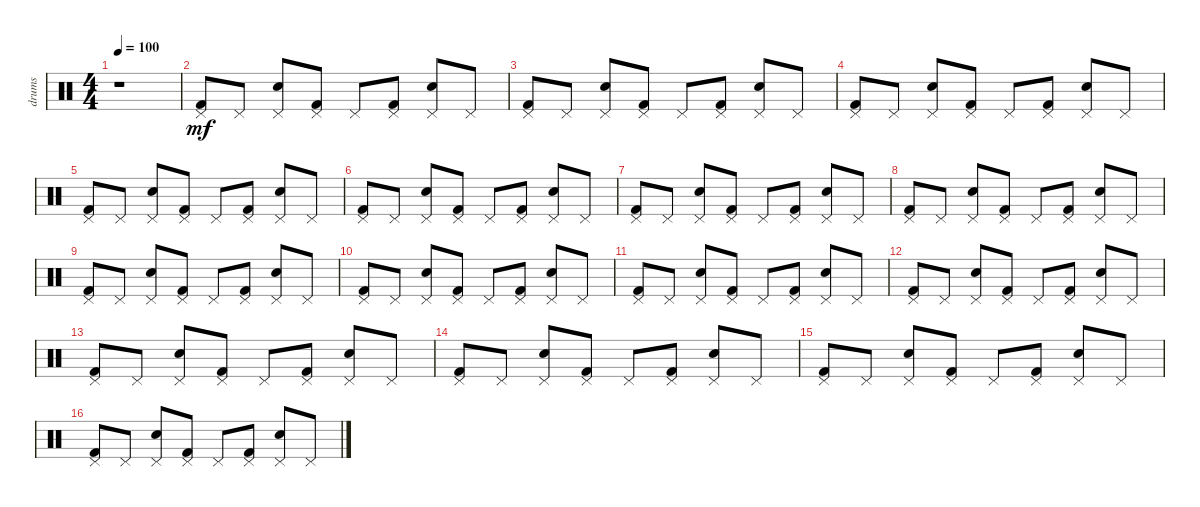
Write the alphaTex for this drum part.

\track ("drums" "drums") {instrument percussion}
\staff {score}
\articulation defaults
\ts (4 4)
\tempo 100
\clef neutral
\ks c
r.1{dy mf} |
("Kick (hit) 2" "Pedal Hi-Hat (hit)").8 "Pedal Hi-Hat (hit)".8 ("Snare (hit) 2" "Pedal Hi-Hat (hit)").8 ("Kick (hit) 2" "Pedal Hi-Hat (hit)").8 "Pedal Hi-Hat (hit)".8 ("Kick (hit) 2" "Pedal Hi-Hat (hit)").8 ("Snare (hit) 2" "Pedal Hi-Hat (hit)").8 "Pedal Hi-Hat (hit)".8 |
("Kick (hit) 2" "Pedal Hi-Hat (hit)").8 "Pedal Hi-Hat (hit)".8 ("Snare (hit) 2" "Pedal Hi-Hat (hit)").8 ("Kick (hit) 2" "Pedal Hi-Hat (hit)").8 "Pedal Hi-Hat (hit)".8 ("Kick (hit) 2" "Pedal Hi-Hat (hit)").8 ("Snare (hit) 2" "Pedal Hi-Hat (hit)").8 "Pedal Hi-Hat (hit)".8 |
("Kick (hit) 2" "Pedal Hi-Hat (hit)").8 "Pedal Hi-Hat (hit)".8 ("Snare (hit) 2" "Pedal Hi-Hat (hit)").8 ("Kick (hit) 2" "Pedal Hi-Hat (hit)").8 "Pedal Hi-Hat (hit)".8 ("Kick (hit) 2" "Pedal Hi-Hat (hit)").8 ("Snare (hit) 2" "Pedal Hi-Hat (hit)").8 "Pedal Hi-Hat (hit)".8 |
("Kick (hit) 2" "Pedal Hi-Hat (hit)").8 "Pedal Hi-Hat (hit)".8 ("Snare (hit) 2" "Pedal Hi-Hat (hit)").8 ("Kick (hit) 2" "Pedal Hi-Hat (hit)").8 "Pedal Hi-Hat (hit)".8 ("Kick (hit) 2" "Pedal Hi-Hat (hit)").8 ("Snare (hit) 2" "Pedal Hi-Hat (hit)").8 "Pedal Hi-Hat (hit)".8 |
("Kick (hit) 2" "Pedal Hi-Hat (hit)").8 "Pedal Hi-Hat (hit)".8 ("Snare (hit) 2" "Pedal Hi-Hat (hit)").8 ("Kick (hit) 2" "Pedal Hi-Hat (hit)").8 "Pedal Hi-Hat (hit)".8 ("Kick (hit) 2" "Pedal Hi-Hat (hit)").8 ("Snare (hit) 2" "Pedal Hi-Hat (hit)").8 "Pedal Hi-Hat (hit)".8 |
("Kick (hit) 2" "Pedal Hi-Hat (hit)").8 "Pedal Hi-Hat (hit)".8 ("Snare (hit) 2" "Pedal Hi-Hat (hit)").8 ("Kick (hit) 2" "Pedal Hi-Hat (hit)").8 "Pedal Hi-Hat (hit)".8 ("Kick (hit) 2" "Pedal Hi-Hat (hit)").8 ("Snare (hit) 2" "Pedal Hi-Hat (hit)").8 "Pedal Hi-Hat (hit)".8 |
("Kick (hit) 2" "Pedal Hi-Hat (hit)").8 "Pedal Hi-Hat (hit)".8 ("Snare (hit) 2" "Pedal Hi-Hat (hit)").8 ("Kick (hit) 2" "Pedal Hi-Hat (hit)").8 "Pedal Hi-Hat (hit)".8 ("Kick (hit) 2" "Pedal Hi-Hat (hit)").8 ("Snare (hit) 2" "Pedal Hi-Hat (hit)").8 "Pedal Hi-Hat (hit)".8 |
("Kick (hit) 2" "Pedal Hi-Hat (hit)").8 "Pedal Hi-Hat (hit)".8 ("Snare (hit) 2" "Pedal Hi-Hat (hit)").8 ("Kick (hit) 2" "Pedal Hi-Hat (hit)").8 "Pedal Hi-Hat (hit)".8 ("Kick (hit) 2" "Pedal Hi-Hat (hit)").8 ("Snare (hit) 2" "Pedal Hi-Hat (hit)").8 "Pedal Hi-Hat (hit)".8 |
("Kick (hit) 2" "Pedal Hi-Hat (hit)").8 "Pedal Hi-Hat (hit)".8 ("Snare (hit) 2" "Pedal Hi-Hat (hit)").8 ("Kick (hit) 2" "Pedal Hi-Hat (hit)").8 "Pedal Hi-Hat (hit)".8 ("Kick (hit) 2" "Pedal Hi-Hat (hit)").8 ("Snare (hit) 2" "Pedal Hi-Hat (hit)").8 "Pedal Hi-Hat (hit)".8 |
("Kick (hit) 2" "Pedal Hi-Hat (hit)").8 "Pedal Hi-Hat (hit)".8 ("Snare (hit) 2" "Pedal Hi-Hat (hit)").8 ("Kick (hit) 2" "Pedal Hi-Hat (hit)").8 "Pedal Hi-Hat (hit)".8 ("Kick (hit) 2" "Pedal Hi-Hat (hit)").8 ("Snare (hit) 2" "Pedal Hi-Hat (hit)").8 "Pedal Hi-Hat (hit)".8 |
("Kick (hit) 2" "Pedal Hi-Hat (hit)").8 "Pedal Hi-Hat (hit)".8 ("Snare (hit) 2" "Pedal Hi-Hat (hit)").8 ("Kick (hit) 2" "Pedal Hi-Hat (hit)").8 "Pedal Hi-Hat (hit)".8 ("Kick (hit) 2" "Pedal Hi-Hat (hit)").8 ("Snare (hit) 2" "Pedal Hi-Hat (hit)").8 "Pedal Hi-Hat (hit)".8 |
("Kick (hit) 2" "Pedal Hi-Hat (hit)").8 "Pedal Hi-Hat (hit)".8 ("Snare (hit) 2" "Pedal Hi-Hat (hit)").8 ("Kick (hit) 2" "Pedal Hi-Hat (hit)").8 "Pedal Hi-Hat (hit)".8 ("Kick (hit) 2" "Pedal Hi-Hat (hit)").8 ("Snare (hit) 2" "Pedal Hi-Hat (hit)").8 "Pedal Hi-Hat (hit)".8 |
("Kick (hit) 2" "Pedal Hi-Hat (hit)").8 "Pedal Hi-Hat (hit)".8 ("Snare (hit) 2" "Pedal Hi-Hat (hit)").8 ("Kick (hit) 2" "Pedal Hi-Hat (hit)").8 "Pedal Hi-Hat (hit)".8 ("Kick (hit) 2" "Pedal Hi-Hat (hit)").8 ("Snare (hit) 2" "Pedal Hi-Hat (hit)").8 "Pedal Hi-Hat (hit)".8 |
("Kick (hit) 2" "Pedal Hi-Hat (hit)").8 "Pedal Hi-Hat (hit)".8 ("Snare (hit) 2" "Pedal Hi-Hat (hit)").8 ("Kick (hit) 2" "Pedal Hi-Hat (hit)").8 "Pedal Hi-Hat (hit)".8 ("Kick (hit) 2" "Pedal Hi-Hat (hit)").8 ("Snare (hit) 2" "Pedal Hi-Hat (hit)").8 "Pedal Hi-Hat (hit)".8 |
("Kick (hit) 2" "Pedal Hi-Hat (hit)").8 "Pedal Hi-Hat (hit)".8 ("Snare (hit) 2" "Pedal Hi-Hat (hit)").8 ("Kick (hit) 2" "Pedal Hi-Hat (hit)").8 "Pedal Hi-Hat (hit)".8 ("Kick (hit) 2" "Pedal Hi-Hat (hit)").8 ("Snare (hit) 2" "Pedal Hi-Hat (hit)").8 "Pedal Hi-Hat (hit)".8
